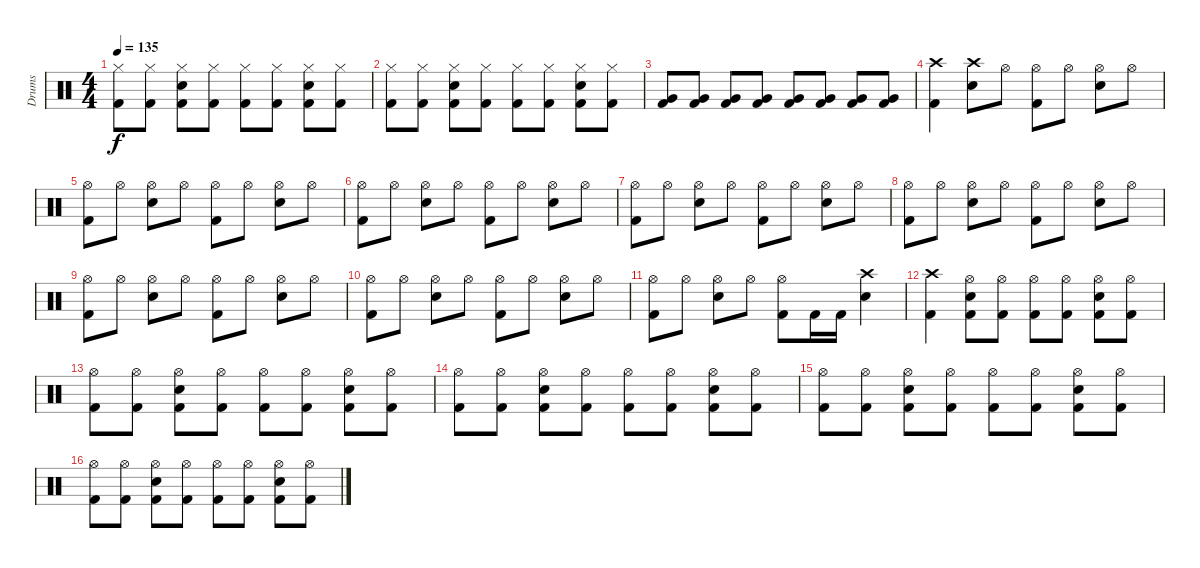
\track ("Drums" "Drums") {instrument percussion}
\staff {score}
\articulation defaults
\ts (4 4)
\tempo 135
\clef neutral
\ks c
("Hi-Hat (closed)" "Kick (hit) 2").8{dy f} ("Hi-Hat (closed)" "Kick (hit) 2").8 ("Hi-Hat (closed)" "Electric Snare (hit)" "Kick (hit) 2").8 ("Hi-Hat (closed)" "Kick (hit) 2").8 ("Hi-Hat (closed)" "Kick (hit) 2").8 ("Hi-Hat (closed)" "Kick (hit) 2").8 ("Hi-Hat (closed)" "Electric Snare (hit)" "Kick (hit) 2").8 ("Hi-Hat (closed)" "Kick (hit) 2").8 |
("Hi-Hat (closed)" "Kick (hit) 2").8 ("Hi-Hat (closed)" "Kick (hit) 2").8 ("Hi-Hat (closed)" "Electric Snare (hit)" "Kick (hit) 2").8 ("Hi-Hat (closed)" "Kick (hit) 2").8 ("Hi-Hat (closed)" "Kick (hit) 2").8 ("Hi-Hat (closed)" "Kick (hit) 2").8 ("Hi-Hat (closed)" "Electric Snare (hit)" "Kick (hit) 2").8 ("Hi-Hat (closed)" "Kick (hit) 2").8 |
("Very Low Tom (hit)" "Kick (hit) 2").8 ("Very Low Tom (hit)" "Kick (hit) 2").8 ("Very Low Tom (hit)" "Kick (hit) 2").8 ("Very Low Tom (hit)" "Kick (hit) 2").8 ("Very Low Tom (hit)" "Kick (hit) 2").8 ("Very Low Tom (hit)" "Kick (hit) 2").8 ("Very Low Tom (hit)" "Kick (hit) 2").8 ("Very Low Tom (hit)" "Kick (hit) 2").8 |
("Crash high (hit)" "Kick (hit) 2").4 ("Crash high (hit)" "Electric Snare (hit)").8 "Hi-Hat (open)".8 ("Hi-Hat (open)" "Kick (hit) 2").8 "Hi-Hat (open)".8 ("Hi-Hat (open)" "Electric Snare (hit)").8 "Hi-Hat (open)".8 |
("Hi-Hat (open)" "Kick (hit) 2").8 "Hi-Hat (open)".8 ("Hi-Hat (open)" "Electric Snare (hit)").8 "Hi-Hat (open)".8 ("Hi-Hat (open)" "Kick (hit) 2").8 "Hi-Hat (open)".8 ("Hi-Hat (open)" "Electric Snare (hit)").8 "Hi-Hat (open)".8 |
("Hi-Hat (open)" "Kick (hit) 2").8 "Hi-Hat (open)".8 ("Hi-Hat (open)" "Electric Snare (hit)").8 "Hi-Hat (open)".8 ("Hi-Hat (open)" "Kick (hit) 2").8 "Hi-Hat (open)".8 ("Hi-Hat (open)" "Electric Snare (hit)").8 "Hi-Hat (open)".8 |
("Hi-Hat (open)" "Kick (hit) 2").8 "Hi-Hat (open)".8 ("Hi-Hat (open)" "Electric Snare (hit)").8 "Hi-Hat (open)".8 ("Hi-Hat (open)" "Kick (hit) 2").8 "Hi-Hat (open)".8 ("Hi-Hat (open)" "Electric Snare (hit)").8 "Hi-Hat (open)".8 |
("Hi-Hat (open)" "Kick (hit) 2").8 "Hi-Hat (open)".8 ("Hi-Hat (open)" "Electric Snare (hit)").8 "Hi-Hat (open)".8 ("Hi-Hat (open)" "Kick (hit) 2").8 "Hi-Hat (open)".8 ("Hi-Hat (open)" "Electric Snare (hit)").8 "Hi-Hat (open)".8 |
("Hi-Hat (open)" "Kick (hit) 2").8 "Hi-Hat (open)".8 ("Hi-Hat (open)" "Electric Snare (hit)").8 "Hi-Hat (open)".8 ("Hi-Hat (open)" "Kick (hit) 2").8 "Hi-Hat (open)".8 ("Hi-Hat (open)" "Electric Snare (hit)").8 "Hi-Hat (open)".8 |
("Hi-Hat (open)" "Kick (hit) 2").8 "Hi-Hat (open)".8 ("Hi-Hat (open)" "Electric Snare (hit)").8 "Hi-Hat (open)".8 ("Hi-Hat (open)" "Kick (hit) 2").8 "Hi-Hat (open)".8 ("Hi-Hat (open)" "Electric Snare (hit)").8 "Hi-Hat (open)".8 |
("Hi-Hat (open)" "Kick (hit) 2").8 "Hi-Hat (open)".8 ("Hi-Hat (open)" "Electric Snare (hit)").8 "Hi-Hat (open)".8 ("Hi-Hat (open)" "Kick (hit) 2").8 "Kick (hit) 2".16 "Kick (hit) 2".16 ("Crash high (hit)" "Electric Snare (hit)").4 |
("Crash high (hit)" "Kick (hit) 2").4 ("Hi-Hat (open)" "Electric Snare (hit)" "Kick (hit) 2").8 ("Hi-Hat (open)" "Kick (hit) 2").8 ("Hi-Hat (open)" "Kick (hit) 2").8 ("Hi-Hat (open)" "Kick (hit) 2").8 ("Hi-Hat (open)" "Electric Snare (hit)" "Kick (hit) 2").8 ("Hi-Hat (open)" "Kick (hit) 2").8 |
("Hi-Hat (open)" "Kick (hit) 2").8 ("Hi-Hat (open)" "Kick (hit) 2").8 ("Hi-Hat (open)" "Electric Snare (hit)" "Kick (hit) 2").8 ("Hi-Hat (open)" "Kick (hit) 2").8 ("Hi-Hat (open)" "Kick (hit) 2").8 ("Hi-Hat (open)" "Kick (hit) 2").8 ("Hi-Hat (open)" "Electric Snare (hit)" "Kick (hit) 2").8 ("Hi-Hat (open)" "Kick (hit) 2").8 |
("Hi-Hat (open)" "Kick (hit) 2").8 ("Hi-Hat (open)" "Kick (hit) 2").8 ("Hi-Hat (open)" "Electric Snare (hit)" "Kick (hit) 2").8 ("Hi-Hat (open)" "Kick (hit) 2").8 ("Hi-Hat (open)" "Kick (hit) 2").8 ("Hi-Hat (open)" "Kick (hit) 2").8 ("Hi-Hat (open)" "Electric Snare (hit)" "Kick (hit) 2").8 ("Hi-Hat (open)" "Kick (hit) 2").8 |
("Hi-Hat (open)" "Kick (hit) 2").8 ("Hi-Hat (open)" "Kick (hit) 2").8 ("Hi-Hat (open)" "Electric Snare (hit)" "Kick (hit) 2").8 ("Hi-Hat (open)" "Kick (hit) 2").8 ("Hi-Hat (open)" "Kick (hit) 2").8 ("Hi-Hat (open)" "Kick (hit) 2").8 ("Hi-Hat (open)" "Electric Snare (hit)" "Kick (hit) 2").8 ("Hi-Hat (open)" "Kick (hit) 2").8 |
("Hi-Hat (open)" "Kick (hit) 2").8 ("Hi-Hat (open)" "Kick (hit) 2").8 ("Hi-Hat (open)" "Electric Snare (hit)" "Kick (hit) 2").8 ("Hi-Hat (open)" "Kick (hit) 2").8 ("Hi-Hat (open)" "Kick (hit) 2").8 ("Hi-Hat (open)" "Kick (hit) 2").8 ("Hi-Hat (open)" "Electric Snare (hit)" "Kick (hit) 2").8 ("Hi-Hat (open)" "Kick (hit) 2").8
